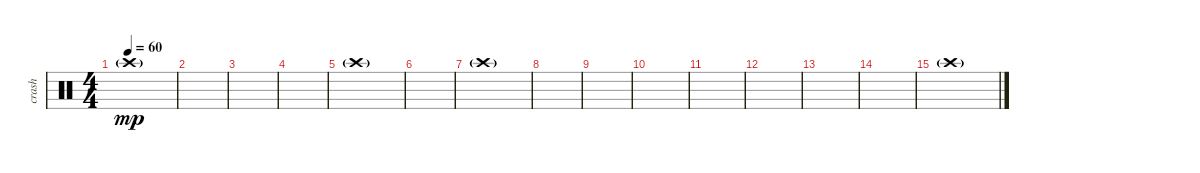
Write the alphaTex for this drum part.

\track ("crash" "crash") {instrument percussion}
\staff {score}
\articulation defaults
\ts (4 4)
\tempo 60
\clef neutral
\ks c "Crash high (hit)"{g}.1{dy mp}
|
|
|
|
"Crash high (hit)"{g}.1 |
|
"Crash high (hit)"{g}.1 |
|
|
|
|
|
|
|
"Crash high (hit)"{g}.1
